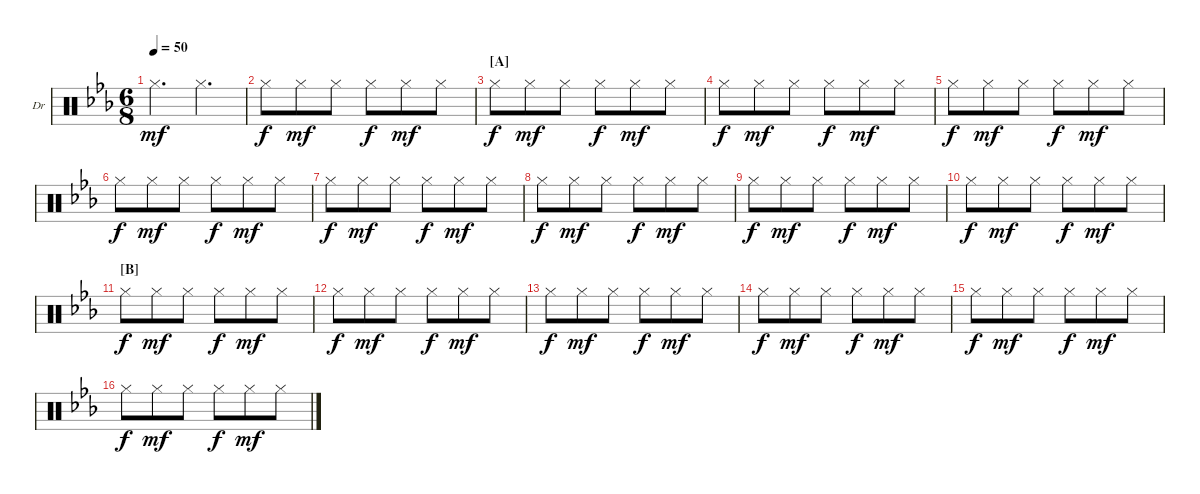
\defaultSystemsLayout 4
\bracketExtendMode nobrackets
\firstSystemTrackNameOrientation horizontal
\otherSystemsTrackNameOrientation horizontal
\chordDiagramsInScore
\track ("Drums" "Dr") {instrument percussion}
\staff {score}
\articulation defaults
\ts (6 8)
\tempo 50
\clef neutral
\ks eb "Hi-Hat (closed)".4{d dy mf} "Hi-Hat (closed)".4{d}
|
"Hi-Hat (closed)".8{dy f} "Hi-Hat (closed)".8{dy mf} "Hi-Hat (closed)".8 "Hi-Hat (closed)".8{dy f} "Hi-Hat (closed)".8{dy mf} "Hi-Hat (closed)".8 |
\section ("A" "")
\scale
0.262911 "Hi-Hat (closed)".8{dy f} "Hi-Hat (closed)".8{dy mf} "Hi-Hat (closed)".8 "Hi-Hat (closed)".8{dy f} "Hi-Hat (closed)".8{dy mf} "Hi-Hat (closed)".8 |
"Hi-Hat (closed)".8{dy f} "Hi-Hat (closed)".8{dy mf} "Hi-Hat (closed)".8 "Hi-Hat (closed)".8{dy f} "Hi-Hat (closed)".8{dy mf} "Hi-Hat (closed)".8 |
"Hi-Hat (closed)".8{dy f} "Hi-Hat (closed)".8{dy mf} "Hi-Hat (closed)".8 "Hi-Hat (closed)".8{dy f} "Hi-Hat (closed)".8{dy mf} "Hi-Hat (closed)".8 |
"Hi-Hat (closed)".8{dy f} "Hi-Hat (closed)".8{dy mf} "Hi-Hat (closed)".8 "Hi-Hat (closed)".8{dy f} "Hi-Hat (closed)".8{dy mf} "Hi-Hat (closed)".8 |
"Hi-Hat (closed)".8{dy f} "Hi-Hat (closed)".8{dy mf} "Hi-Hat (closed)".8 "Hi-Hat (closed)".8{dy f} "Hi-Hat (closed)".8{dy mf} "Hi-Hat (closed)".8 |
"Hi-Hat (closed)".8{dy f} "Hi-Hat (closed)".8{dy mf} "Hi-Hat (closed)".8 "Hi-Hat (closed)".8{dy f} "Hi-Hat (closed)".8{dy mf} "Hi-Hat (closed)".8 |
"Hi-Hat (closed)".8{dy f} "Hi-Hat (closed)".8{dy mf} "Hi-Hat (closed)".8 "Hi-Hat (closed)".8{dy f} "Hi-Hat (closed)".8{dy mf} "Hi-Hat (closed)".8 |
"Hi-Hat (closed)".8{dy f} "Hi-Hat (closed)".8{dy mf} "Hi-Hat (closed)".8 "Hi-Hat (closed)".8{dy f} "Hi-Hat (closed)".8{dy mf} "Hi-Hat (closed)".8 |
\section ("B" "")
"Hi-Hat (closed)".8{dy f} "Hi-Hat (closed)".8{dy mf} "Hi-Hat (closed)".8 "Hi-Hat (closed)".8{dy f} "Hi-Hat (closed)".8{dy mf} "Hi-Hat (closed)".8 |
"Hi-Hat (closed)".8{dy f} "Hi-Hat (closed)".8{dy mf} "Hi-Hat (closed)".8 "Hi-Hat (closed)".8{dy f} "Hi-Hat (closed)".8{dy mf} "Hi-Hat (closed)".8 |
"Hi-Hat (closed)".8{dy f} "Hi-Hat (closed)".8{dy mf} "Hi-Hat (closed)".8 "Hi-Hat (closed)".8{dy f} "Hi-Hat (closed)".8{dy mf} "Hi-Hat (closed)".8 |
"Hi-Hat (closed)".8{dy f} "Hi-Hat (closed)".8{dy mf} "Hi-Hat (closed)".8 "Hi-Hat (closed)".8{dy f} "Hi-Hat (closed)".8{dy mf} "Hi-Hat (closed)".8 |
"Hi-Hat (closed)".8{dy f} "Hi-Hat (closed)".8{dy mf} "Hi-Hat (closed)".8 "Hi-Hat (closed)".8{dy f} "Hi-Hat (closed)".8{dy mf} "Hi-Hat (closed)".8 |
"Hi-Hat (closed)".8{dy f} "Hi-Hat (closed)".8{dy mf} "Hi-Hat (closed)".8 "Hi-Hat (closed)".8{dy f} "Hi-Hat (closed)".8{dy mf} "Hi-Hat (closed)".8
